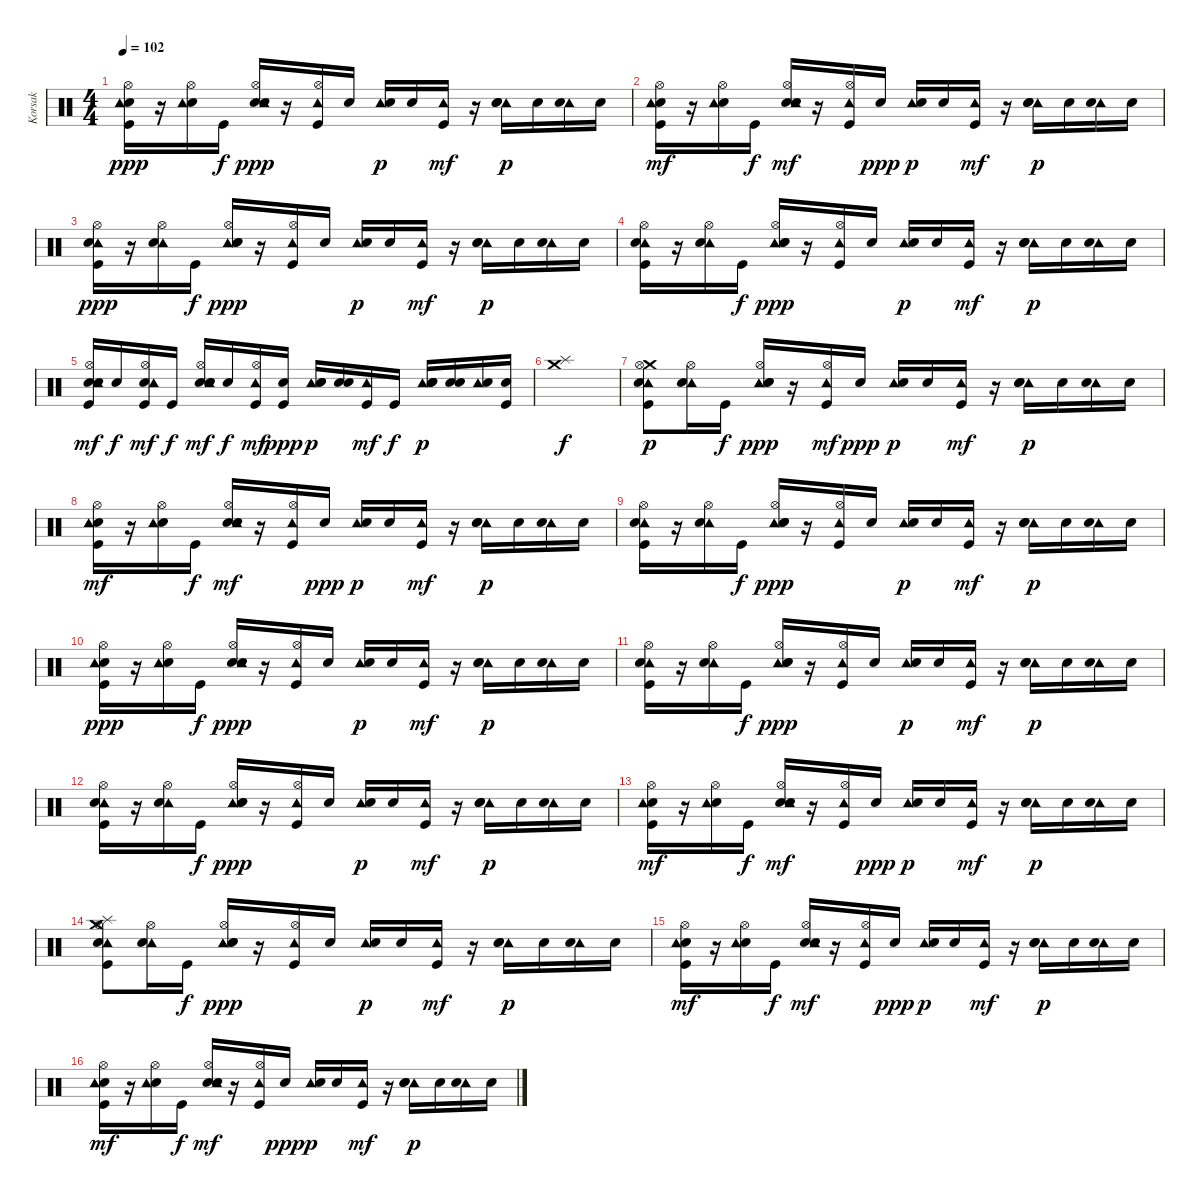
\track ("Korsak" "Korsak") {instrument percussion}
\staff {score}
\articulation defaults
\ts (4 4)
\tempo 102
\clef neutral
\ks c
("Electric Snare (hit)" "Tambourine (hit)" "Hi-Hat (open)" "Kick (hit)").16{dy ppp} r.16 ("Electric Snare (hit)" "Tambourine (hit)" "Hi-Hat (open)").16 "Kick (hit)".16{dy f} ("Electric Snare (hit)" "Tambourine (hit)" "Hi-Hat (open)" "Snare (hit) 2").16{dy ppp} r.16 ("Tambourine (hit)" "Hi-Hat (open)" "Kick (hit)").16 "Electric Snare (hit)".16 ("Tambourine (hit)" "Electric Snare (hit)").16{dy p} "Electric Snare (hit)".16 ("Tambourine (hit)" "Kick (hit)").16{dy mf} r.16 ("Tambourine (hit)" "Electric Snare (hit)" "Snare (hit) 2").16{dy p} "Electric Snare (hit)".16 ("Tambourine (hit)" "Electric Snare (hit)").16 "Electric Snare (hit)".16 |
("Electric Snare (hit)" "Hi-Hat (open)" "Kick (hit)" "Tambourine (hit)").16{dy mf} r.16 ("Electric Snare (hit)" "Hi-Hat (open)" "Tambourine (hit)").16 "Kick (hit)".16{dy f} ("Electric Snare (hit)" "Hi-Hat (open)" "Snare (hit) 2" "Tambourine (hit)").16{dy mf} r.16 ("Hi-Hat (open)" "Kick (hit)" "Tambourine (hit)").16 "Electric Snare (hit)".16{dy ppp} ("Tambourine (hit)" "Electric Snare (hit)").16{dy p} "Electric Snare (hit)".16 ("Kick (hit)" "Tambourine (hit)").16{dy mf} r.16 ("Tambourine (hit)" "Electric Snare (hit)" "Snare (hit) 2").16{dy p} "Electric Snare (hit)".16 ("Tambourine (hit)" "Electric Snare (hit)").16 "Electric Snare (hit)".16 |
("Tambourine (hit)" "Kick (hit)" "Electric Snare (hit)" "Hi-Hat (open)").16{dy ppp} r.16 ("Tambourine (hit)" "Electric Snare (hit)" "Hi-Hat (open)").16 "Kick (hit)".16{dy f} ("Tambourine (hit)" "Snare (hit) 2" "Electric Snare (hit)" "Hi-Hat (open)").16{dy ppp} r.16 ("Tambourine (hit)" "Kick (hit)" "Hi-Hat (open)").16 "Electric Snare (hit)".16 ("Tambourine (hit)" "Electric Snare (hit)").16{dy p} "Electric Snare (hit)".16 ("Tambourine (hit)" "Kick (hit)").16{dy mf} r.16 ("Tambourine (hit)" "Electric Snare (hit)" "Snare (hit) 2").16{dy p} "Electric Snare (hit)".16 ("Tambourine (hit)" "Electric Snare (hit)").16 "Electric Snare (hit)".16 |
("Tambourine (hit)" "Kick (hit)" "Hi-Hat (open)" "Electric Snare (hit)").16 r.16 ("Tambourine (hit)" "Hi-Hat (open)" "Electric Snare (hit)").16 "Kick (hit)".16{dy f} ("Tambourine (hit)" "Snare (hit) 2" "Hi-Hat (open)" "Electric Snare (hit)").16{dy ppp} r.16 ("Tambourine (hit)" "Kick (hit)" "Hi-Hat (open)").16 "Electric Snare (hit)".16 ("Tambourine (hit)" "Electric Snare (hit)").16{dy p} "Electric Snare (hit)".16 ("Tambourine (hit)" "Kick (hit)").16{dy mf} r.16 ("Tambourine (hit)" "Electric Snare (hit)" "Snare (hit) 2").16{dy p} "Electric Snare (hit)".16 ("Tambourine (hit)" "Electric Snare (hit)").16 "Electric Snare (hit)".16 |
("Hi-Hat (open)" "Electric Snare (hit)" "Tambourine (hit)" "Kick (hit)" "Snare (hit) 2").16{dy mf} "Snare (hit) 2".16{dy f} ("Kick (hit)" "Hi-Hat (open)" "Electric Snare (hit)" "Tambourine (hit)").16{dy mf} "Kick (hit)".16{dy f} ("Hi-Hat (open)" "Electric Snare (hit)" "Tambourine (hit)" "Snare (hit) 2" "Snare (hit) 2").16{dy mf} "Snare (hit) 2".16{dy f} ("Kick (hit)" "Hi-Hat (open)" "Tambourine (hit)").16{dy mf} ("Kick (hit)" "Electric Snare (hit)").16{dy ppp} ("Tambourine (hit)" "Snare (hit) 2" "Electric Snare (hit)").16{dy p} ("Snare (hit) 2" "Electric Snare (hit)").16 ("Tambourine (hit)" "Kick (hit)").16{dy mf} "Kick (hit)".16{dy f} ("Tambourine (hit)" "Snare (hit) 2" "Electric Snare (hit)" "Snare (hit) 2").16{dy p} ("Snare (hit) 2" "Electric Snare (hit)").16 ("Tambourine (hit)" "Electric Snare (hit)").16 ("Kick (hit)" "Electric Snare (hit)").16 |
("Splash (hit)" "Crash medium (hit)").1{dy f} |
("Crash medium (hit)" "Hi-Hat (open)" "Tambourine (hit)" "Kick (hit)" "Electric Snare (hit)").8{dy p} ("Hi-Hat (open)" "Tambourine (hit)" "Electric Snare (hit)").16 "Kick (hit)".16{dy f} ("Hi-Hat (open)" "Tambourine (hit)" "Snare (hit) 2" "Electric Snare (hit)").16{dy ppp} r.16 ("Hi-Hat (open)" "Tambourine (hit)" "Kick (hit)").16{dy mf} "Electric Snare (hit)".16{dy ppp} ("Tambourine (hit)" "Electric Snare (hit)").16{dy p} "Electric Snare (hit)".16 ("Tambourine (hit)" "Kick (hit)").16{dy mf} r.16 ("Tambourine (hit)" "Electric Snare (hit)" "Snare (hit) 2").16{dy p} "Electric Snare (hit)".16 ("Tambourine (hit)" "Electric Snare (hit)").16 "Electric Snare (hit)".16 |
("Hi-Hat (open)" "Electric Snare (hit)" "Tambourine (hit)" "Kick (hit)").16{dy mf} r.16 ("Hi-Hat (open)" "Electric Snare (hit)" "Tambourine (hit)").16 "Kick (hit)".16{dy f} ("Hi-Hat (open)" "Electric Snare (hit)" "Tambourine (hit)" "Snare (hit) 2").16{dy mf} r.16 ("Hi-Hat (open)" "Tambourine (hit)" "Kick (hit)").16 "Electric Snare (hit)".16{dy ppp} ("Tambourine (hit)" "Electric Snare (hit)").16{dy p} "Electric Snare (hit)".16 ("Tambourine (hit)" "Kick (hit)").16{dy mf} r.16 ("Tambourine (hit)" "Electric Snare (hit)" "Snare (hit) 2").16{dy p} "Electric Snare (hit)".16 ("Tambourine (hit)" "Electric Snare (hit)").16 "Electric Snare (hit)".16 |
("Tambourine (hit)" "Hi-Hat (open)" "Kick (hit)" "Electric Snare (hit)").16 r.16 ("Tambourine (hit)" "Hi-Hat (open)" "Electric Snare (hit)").16 "Kick (hit)".16{dy f} ("Tambourine (hit)" "Hi-Hat (open)" "Snare (hit) 2" "Electric Snare (hit)").16{dy ppp} r.16 ("Tambourine (hit)" "Hi-Hat (open)" "Kick (hit)").16 "Electric Snare (hit)".16 ("Tambourine (hit)" "Electric Snare (hit)").16{dy p} "Electric Snare (hit)".16 ("Tambourine (hit)" "Kick (hit)").16{dy mf} r.16 ("Tambourine (hit)" "Electric Snare (hit)" "Snare (hit) 2").16{dy p} "Electric Snare (hit)".16 ("Tambourine (hit)" "Electric Snare (hit)").16 "Electric Snare (hit)".16 |
("Electric Snare (hit)" "Kick (hit)" "Tambourine (hit)" "Hi-Hat (open)").16{dy ppp} r.16 ("Electric Snare (hit)" "Tambourine (hit)" "Hi-Hat (open)").16 "Kick (hit)".16{dy f} ("Electric Snare (hit)" "Snare (hit) 2" "Tambourine (hit)" "Hi-Hat (open)").16{dy ppp} r.16 ("Kick (hit)" "Tambourine (hit)" "Hi-Hat (open)").16 "Electric Snare (hit)".16 ("Tambourine (hit)" "Electric Snare (hit)").16{dy p} "Electric Snare (hit)".16 ("Kick (hit)" "Tambourine (hit)").16{dy mf} r.16 ("Tambourine (hit)" "Electric Snare (hit)" "Snare (hit) 2").16{dy p} "Electric Snare (hit)".16 ("Tambourine (hit)" "Electric Snare (hit)").16 "Electric Snare (hit)".16 |
("Tambourine (hit)" "Hi-Hat (open)" "Kick (hit)" "Electric Snare (hit)").16 r.16 ("Tambourine (hit)" "Hi-Hat (open)" "Electric Snare (hit)").16 "Kick (hit)".16{dy f} ("Tambourine (hit)" "Hi-Hat (open)" "Snare (hit) 2" "Electric Snare (hit)").16{dy ppp} r.16 ("Tambourine (hit)" "Hi-Hat (open)" "Kick (hit)").16 "Electric Snare (hit)".16 ("Tambourine (hit)" "Electric Snare (hit)").16{dy p} "Electric Snare (hit)".16 ("Tambourine (hit)" "Kick (hit)").16{dy mf} r.16 ("Tambourine (hit)" "Electric Snare (hit)" "Snare (hit) 2").16{dy p} "Electric Snare (hit)".16 ("Tambourine (hit)" "Electric Snare (hit)").16 "Electric Snare (hit)".16 |
("Tambourine (hit)" "Kick (hit)" "Hi-Hat (open)" "Electric Snare (hit)").16 r.16 ("Tambourine (hit)" "Hi-Hat (open)" "Electric Snare (hit)").16 "Kick (hit)".16{dy f} ("Tambourine (hit)" "Snare (hit) 2" "Hi-Hat (open)" "Electric Snare (hit)").16{dy ppp} r.16 ("Tambourine (hit)" "Kick (hit)" "Hi-Hat (open)").16 "Electric Snare (hit)".16 ("Tambourine (hit)" "Electric Snare (hit)").16{dy p} "Electric Snare (hit)".16 ("Tambourine (hit)" "Kick (hit)").16{dy mf} r.16 ("Tambourine (hit)" "Electric Snare (hit)" "Snare (hit) 2").16{dy p} "Electric Snare (hit)".16 ("Tambourine (hit)" "Electric Snare (hit)").16 "Electric Snare (hit)".16 |
("Kick (hit)" "Electric Snare (hit)" "Hi-Hat (open)" "Tambourine (hit)").16{dy mf} r.16 ("Electric Snare (hit)" "Hi-Hat (open)" "Tambourine (hit)").16 "Kick (hit)".16{dy f} ("Snare (hit) 2" "Electric Snare (hit)" "Hi-Hat (open)" "Tambourine (hit)").16{dy mf} r.16 ("Kick (hit)" "Hi-Hat (open)" "Tambourine (hit)").16 "Electric Snare (hit)".16{dy ppp} ("Tambourine (hit)" "Electric Snare (hit)").16{dy p} "Electric Snare (hit)".16 ("Kick (hit)" "Tambourine (hit)").16{dy mf} r.16 ("Tambourine (hit)" "Electric Snare (hit)" "Snare (hit) 2").16{dy p} "Electric Snare (hit)".16 ("Tambourine (hit)" "Electric Snare (hit)").16 "Electric Snare (hit)".16 |
("Tambourine (hit)" "Hi-Hat (open)" "Electric Snare (hit)" "Splash (hit)" "Crash medium (hit)" "Kick (hit)").8 ("Tambourine (hit)" "Hi-Hat (open)" "Electric Snare (hit)").16 "Kick (hit)".16{dy f} ("Tambourine (hit)" "Hi-Hat (open)" "Electric Snare (hit)" "Snare (hit) 2").16{dy ppp} r.16 ("Tambourine (hit)" "Hi-Hat (open)" "Kick (hit)").16 "Electric Snare (hit)".16 ("Tambourine (hit)" "Electric Snare (hit)").16{dy p} "Electric Snare (hit)".16 ("Tambourine (hit)" "Kick (hit)").16{dy mf} r.16 ("Tambourine (hit)" "Electric Snare (hit)" "Snare (hit) 2").16{dy p} "Electric Snare (hit)".16 ("Tambourine (hit)" "Electric Snare (hit)").16 "Electric Snare (hit)".16 |
("Kick (hit)" "Hi-Hat (open)" "Electric Snare (hit)" "Tambourine (hit)").16{dy mf} r.16 ("Hi-Hat (open)" "Electric Snare (hit)" "Tambourine (hit)").16 "Kick (hit)".16{dy f} ("Snare (hit) 2" "Hi-Hat (open)" "Electric Snare (hit)" "Tambourine (hit)").16{dy mf} r.16 ("Kick (hit)" "Hi-Hat (open)" "Tambourine (hit)").16 "Electric Snare (hit)".16{dy ppp} ("Tambourine (hit)" "Electric Snare (hit)").16{dy p} "Electric Snare (hit)".16 ("Kick (hit)" "Tambourine (hit)").16{dy mf} r.16 ("Tambourine (hit)" "Electric Snare (hit)" "Snare (hit) 2").16{dy p} "Electric Snare (hit)".16 ("Tambourine (hit)" "Electric Snare (hit)").16 "Electric Snare (hit)".16 |
("Electric Snare (hit)" "Hi-Hat (open)" "Kick (hit)" "Tambourine (hit)").16{dy mf} r.16 ("Electric Snare (hit)" "Hi-Hat (open)" "Tambourine (hit)").16 "Kick (hit)".16{dy f} ("Electric Snare (hit)" "Hi-Hat (open)" "Snare (hit) 2" "Tambourine (hit)").16{dy mf} r.16 ("Hi-Hat (open)" "Kick (hit)" "Tambourine (hit)").16 "Electric Snare (hit)".16{dy ppp} ("Tambourine (hit)" "Electric Snare (hit)").16{dy p} "Electric Snare (hit)".16 ("Kick (hit)" "Tambourine (hit)").16{dy mf} r.16 ("Tambourine (hit)" "Electric Snare (hit)" "Snare (hit) 2").16{dy p} "Electric Snare (hit)".16 ("Tambourine (hit)" "Electric Snare (hit)").16 "Electric Snare (hit)".16
